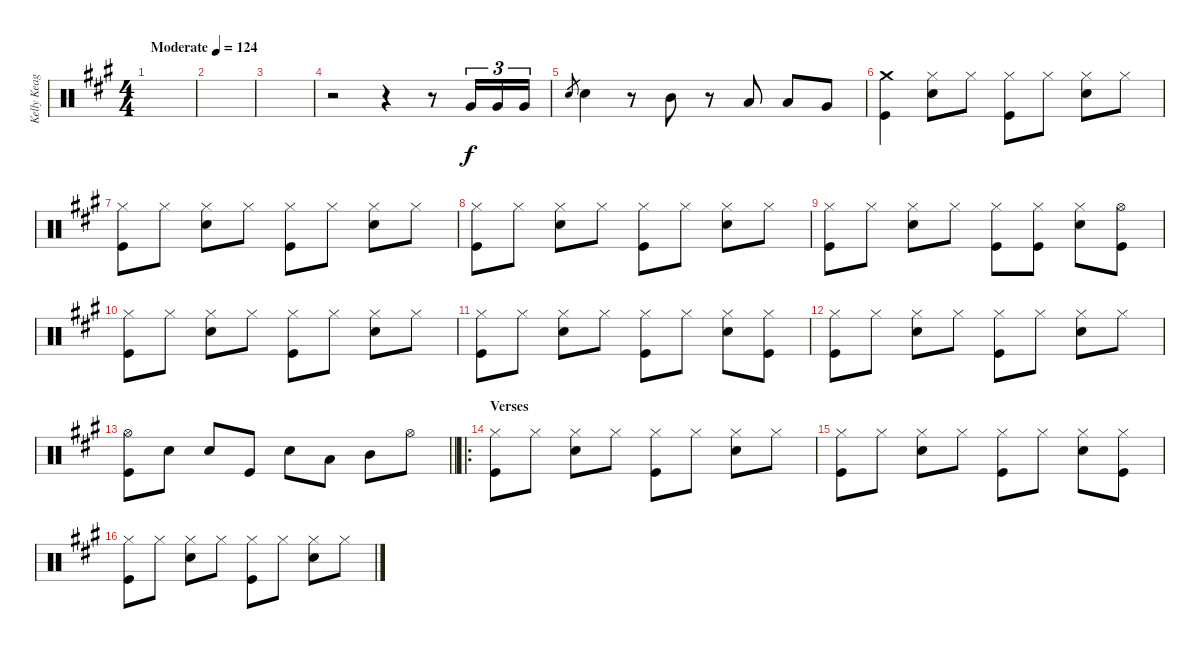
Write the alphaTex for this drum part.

\track ("Kelly Keagy" "Kelly Keag") {instrument percussion}
\staff {score}
\articulation defaults
\ts (4 4)
\tempo (124 "Moderate")
\clef neutral
\ks a
|
|
|
r.2 r.4 r.8 "Very Low Tom (hit)".16{tu (3 2)} "Very Low Tom (hit)".16{tu (3 2)} "Very Low Tom (hit)".16{tu (3 2)} |
"Snare (hit) 2".8{gr} "Snare (hit) 2".4 r.8 "Mid Tom (hit)".8 r.8 "Low Tom (hit)".8 "Low Tom (hit)".8 "Very Low Tom (hit)".8 |
("Crash medium (hit)" "Kick (hit)").4 ("Hi-Hat (closed)" "Snare (hit) 2").8 "Hi-Hat (closed)".8 ("Hi-Hat (closed)" "Kick (hit)").8 "Hi-Hat (closed)".8 ("Hi-Hat (closed)" "Snare (hit) 2").8 "Hi-Hat (closed)".8 |
("Hi-Hat (closed)" "Kick (hit)").8 "Hi-Hat (closed)".8 ("Hi-Hat (closed)" "Snare (hit) 2").8 "Hi-Hat (closed)".8 ("Hi-Hat (closed)" "Kick (hit)").8 "Hi-Hat (closed)".8 ("Hi-Hat (closed)" "Snare (hit) 2").8 "Hi-Hat (closed)".8 |
("Hi-Hat (closed)" "Kick (hit)").8 "Hi-Hat (closed)".8 ("Hi-Hat (closed)" "Snare (hit) 2").8 "Hi-Hat (closed)".8 ("Hi-Hat (closed)" "Kick (hit)").8 "Hi-Hat (closed)".8 ("Hi-Hat (closed)" "Snare (hit) 2").8 "Hi-Hat (closed)".8 |
("Hi-Hat (closed)" "Kick (hit)").8 "Hi-Hat (closed)".8 ("Hi-Hat (closed)" "Snare (hit) 2").8 "Hi-Hat (closed)".8 ("Hi-Hat (closed)" "Kick (hit)").8 ("Hi-Hat (closed)" "Kick (hit)").8 ("Hi-Hat (closed)" "Snare (hit) 2").8 ("Hi-Hat (open)" "Kick (hit)").8 |
("Hi-Hat (closed)" "Kick (hit)").8 "Hi-Hat (closed)".8 ("Hi-Hat (closed)" "Snare (hit) 2").8 "Hi-Hat (closed)".8 ("Hi-Hat (closed)" "Kick (hit)").8 "Hi-Hat (closed)".8 ("Hi-Hat (closed)" "Snare (hit) 2").8 "Hi-Hat (closed)".8 |
("Hi-Hat (closed)" "Kick (hit)").8 "Hi-Hat (closed)".8 ("Hi-Hat (closed)" "Snare (hit) 2").8 "Hi-Hat (closed)".8 ("Hi-Hat (closed)" "Kick (hit)").8 "Hi-Hat (closed)".8 ("Hi-Hat (closed)" "Snare (hit) 2").8 ("Hi-Hat (closed)" "Kick (hit)").8 |
("Hi-Hat (closed)" "Kick (hit)").8 "Hi-Hat (closed)".8 ("Hi-Hat (closed)" "Snare (hit) 2").8 "Hi-Hat (closed)".8 ("Hi-Hat (closed)" "Kick (hit)").8 "Hi-Hat (closed)".8 ("Hi-Hat (closed)" "Snare (hit) 2").8 "Hi-Hat (closed)".8 |
\barLineRight lightlight
("Hi-Hat (open)" "Kick (hit)").8 "Snare (hit) 2".8 "Snare (hit) 2".8 "Kick (hit)".8 "Snare (hit) 2".8 "Low Tom (hit)".8 "Mid Tom (hit)".8 "Hi-Hat (open)".8 |
\ro
\section ("" "Verses")
("Hi-Hat (closed)" "Kick (hit)").8 "Hi-Hat (closed)".8 ("Hi-Hat (closed)" "Snare (hit) 2").8 "Hi-Hat (closed)".8 ("Hi-Hat (closed)" "Kick (hit)").8 "Hi-Hat (closed)".8 ("Hi-Hat (closed)" "Snare (hit) 2").8 "Hi-Hat (closed)".8 |
("Hi-Hat (closed)" "Kick (hit)").8 "Hi-Hat (closed)".8 ("Hi-Hat (closed)" "Snare (hit) 2").8 "Hi-Hat (closed)".8 ("Hi-Hat (closed)" "Kick (hit)").8 "Hi-Hat (closed)".8 ("Hi-Hat (closed)" "Snare (hit) 2").8 ("Hi-Hat (closed)" "Kick (hit)").8 |
("Hi-Hat (closed)" "Kick (hit)").8 "Hi-Hat (closed)".8 ("Hi-Hat (closed)" "Snare (hit) 2").8 "Hi-Hat (closed)".8 ("Hi-Hat (closed)" "Kick (hit)").8 "Hi-Hat (closed)".8 ("Hi-Hat (closed)" "Snare (hit) 2").8 "Hi-Hat (closed)".8
